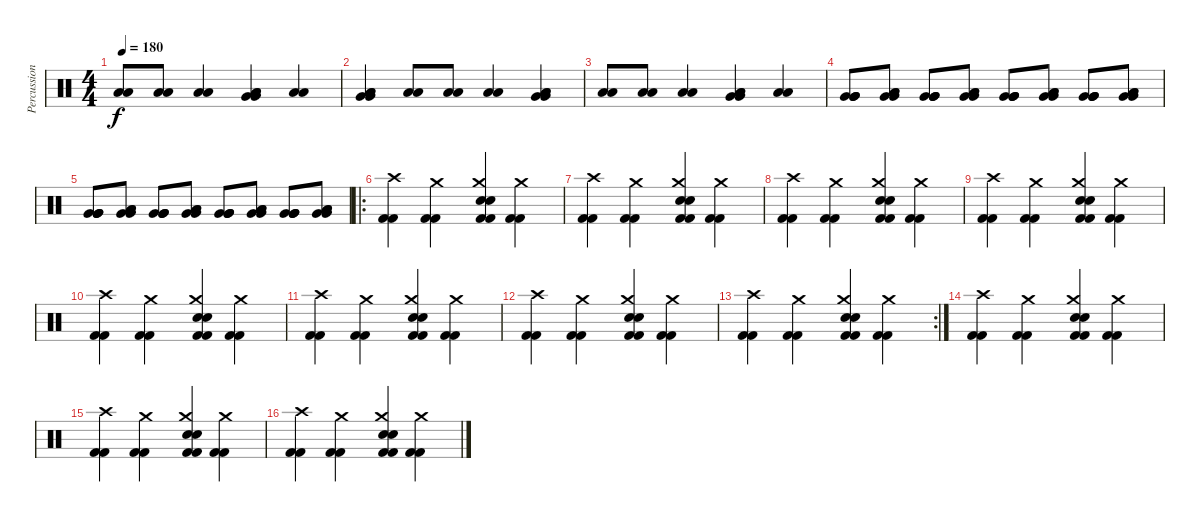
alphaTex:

\track ("Percussion" "Percussion") {instrument percussion}
\staff {score}
\articulation defaults
\ts (4 4)
\tempo 180
\clef neutral
\ks c
("Low Floor Tom (hit)" "Low Floor Tom (hit)").8{dy f} ("Low Floor Tom (hit)" "Low Floor Tom (hit)").8 ("Low Floor Tom (hit)" "Low Floor Tom (hit)").4 ("Low Floor Tom (hit)" "Low Floor Tom (hit)" "Very Low Tom (hit)" "Very Low Tom (hit)").4 ("Low Floor Tom (hit)" "Low Floor Tom (hit)").4 |
("Low Floor Tom (hit)" "Low Floor Tom (hit)" "Very Low Tom (hit)" "Very Low Tom (hit)").4 ("Low Floor Tom (hit)" "Low Floor Tom (hit)").8 ("Low Floor Tom (hit)" "Low Floor Tom (hit)").8 ("Low Floor Tom (hit)" "Low Floor Tom (hit)").4 ("Low Floor Tom (hit)" "Low Floor Tom (hit)" "Very Low Tom (hit)" "Very Low Tom (hit)").4 |
("Low Floor Tom (hit)" "Low Floor Tom (hit)").8 ("Low Floor Tom (hit)" "Low Floor Tom (hit)").8 ("Low Floor Tom (hit)" "Low Floor Tom (hit)").4 ("Low Floor Tom (hit)" "Low Floor Tom (hit)" "Very Low Tom (hit)" "Very Low Tom (hit)").4 ("Low Floor Tom (hit)" "Low Floor Tom (hit)").4 |
("Very Low Tom (hit)" "Very Low Tom (hit)" "Very Low Tom (hit)" "Very Low Tom (hit)").8 ("Low Floor Tom (hit)" "Low Floor Tom (hit)" "Very Low Tom (hit)" "Very Low Tom (hit)").8 ("Very Low Tom (hit)" "Very Low Tom (hit)" "Very Low Tom (hit)" "Very Low Tom (hit)").8 ("Low Floor Tom (hit)" "Low Floor Tom (hit)" "Very Low Tom (hit)" "Very Low Tom (hit)").8 ("Very Low Tom (hit)" "Very Low Tom (hit)" "Very Low Tom (hit)" "Very Low Tom (hit)").8 ("Low Floor Tom (hit)" "Low Floor Tom (hit)" "Very Low Tom (hit)" "Very Low Tom (hit)").8 ("Very Low Tom (hit)" "Very Low Tom (hit)" "Very Low Tom (hit)" "Very Low Tom (hit)").8 ("Low Floor Tom (hit)" "Low Floor Tom (hit)" "Very Low Tom (hit)" "Very Low Tom (hit)").8 |
("Very Low Tom (hit)" "Very Low Tom (hit)" "Very Low Tom (hit)" "Very Low Tom (hit)").8 ("Low Floor Tom (hit)" "Low Floor Tom (hit)" "Very Low Tom (hit)" "Very Low Tom (hit)").8 ("Very Low Tom (hit)" "Very Low Tom (hit)" "Very Low Tom (hit)" "Very Low Tom (hit)").8 ("Low Floor Tom (hit)" "Low Floor Tom (hit)" "Very Low Tom (hit)" "Very Low Tom (hit)").8 ("Very Low Tom (hit)" "Very Low Tom (hit)" "Very Low Tom (hit)" "Very Low Tom (hit)").8 ("Low Floor Tom (hit)" "Low Floor Tom (hit)" "Very Low Tom (hit)" "Very Low Tom (hit)").8 ("Very Low Tom (hit)" "Very Low Tom (hit)" "Very Low Tom (hit)" "Very Low Tom (hit)").8 ("Low Floor Tom (hit)" "Low Floor Tom (hit)" "Very Low Tom (hit)" "Very Low Tom (hit)").8 |
\ro
("Crash high (hit)" "Kick (hit) 2" "Kick (hit) 2").4 ("Crash medium (hit)" "Kick (hit) 2" "Kick (hit) 2").4 ("Crash medium (hit)" "Kick (hit) 2" "Kick (hit) 2" "Snare (hit) 2" "Snare (hit) 2").4 ("Crash medium (hit)" "Kick (hit) 2" "Kick (hit) 2").4 |
("Crash high (hit)" "Kick (hit) 2" "Kick (hit) 2").4 ("Crash medium (hit)" "Kick (hit) 2" "Kick (hit) 2").4 ("Crash medium (hit)" "Kick (hit) 2" "Kick (hit) 2" "Snare (hit) 2" "Snare (hit) 2").4 ("Crash medium (hit)" "Kick (hit) 2" "Kick (hit) 2").4 |
("Crash high (hit)" "Kick (hit) 2" "Kick (hit) 2").4 ("Crash medium (hit)" "Kick (hit) 2" "Kick (hit) 2").4 ("Crash medium (hit)" "Kick (hit) 2" "Kick (hit) 2" "Snare (hit) 2" "Snare (hit) 2").4 ("Crash medium (hit)" "Kick (hit) 2" "Kick (hit) 2").4 |
("Crash high (hit)" "Kick (hit) 2" "Kick (hit) 2").4 ("Crash medium (hit)" "Kick (hit) 2" "Kick (hit) 2").4 ("Crash medium (hit)" "Kick (hit) 2" "Kick (hit) 2" "Snare (hit) 2" "Snare (hit) 2").4 ("Crash medium (hit)" "Kick (hit) 2" "Kick (hit) 2").4 |
("Crash high (hit)" "Kick (hit) 2" "Kick (hit) 2").4 ("Crash medium (hit)" "Kick (hit) 2" "Kick (hit) 2").4 ("Crash medium (hit)" "Kick (hit) 2" "Kick (hit) 2" "Snare (hit) 2" "Snare (hit) 2").4 ("Crash medium (hit)" "Kick (hit) 2" "Kick (hit) 2").4 |
("Crash high (hit)" "Kick (hit) 2" "Kick (hit) 2").4 ("Crash medium (hit)" "Kick (hit) 2" "Kick (hit) 2").4 ("Crash medium (hit)" "Kick (hit) 2" "Kick (hit) 2" "Snare (hit) 2" "Snare (hit) 2").4 ("Crash medium (hit)" "Kick (hit) 2" "Kick (hit) 2").4 |
("Crash high (hit)" "Kick (hit) 2" "Kick (hit) 2").4 ("Crash medium (hit)" "Kick (hit) 2" "Kick (hit) 2").4 ("Crash medium (hit)" "Kick (hit) 2" "Kick (hit) 2" "Snare (hit) 2" "Snare (hit) 2").4 ("Crash medium (hit)" "Kick (hit) 2" "Kick (hit) 2").4 |
\rc 2
("Crash high (hit)" "Kick (hit) 2" "Kick (hit) 2").4 ("Crash medium (hit)" "Kick (hit) 2" "Kick (hit) 2").4 ("Crash medium (hit)" "Kick (hit) 2" "Kick (hit) 2" "Snare (hit) 2" "Snare (hit) 2").4 ("Crash medium (hit)" "Kick (hit) 2" "Kick (hit) 2").4 |
("Crash high (hit)" "Kick (hit) 2" "Kick (hit) 2").4 ("Crash medium (hit)" "Kick (hit) 2" "Kick (hit) 2").4 ("Crash medium (hit)" "Kick (hit) 2" "Kick (hit) 2" "Snare (hit) 2" "Snare (hit) 2").4 ("Crash medium (hit)" "Kick (hit) 2" "Kick (hit) 2").4 |
("Crash high (hit)" "Kick (hit) 2" "Kick (hit) 2").4 ("Crash medium (hit)" "Kick (hit) 2" "Kick (hit) 2").4 ("Crash medium (hit)" "Kick (hit) 2" "Kick (hit) 2" "Snare (hit) 2" "Snare (hit) 2").4 ("Crash medium (hit)" "Kick (hit) 2" "Kick (hit) 2").4 |
("Crash high (hit)" "Kick (hit) 2" "Kick (hit) 2").4 ("Crash medium (hit)" "Kick (hit) 2" "Kick (hit) 2").4 ("Crash medium (hit)" "Kick (hit) 2" "Kick (hit) 2" "Snare (hit) 2" "Snare (hit) 2").4 ("Crash medium (hit)" "Kick (hit) 2" "Kick (hit) 2").4
